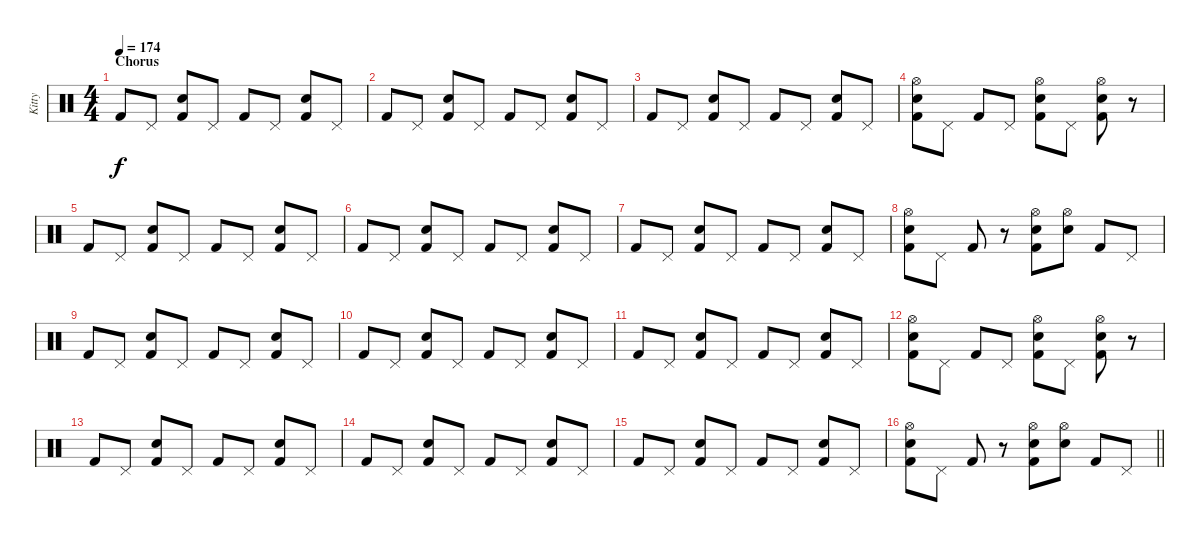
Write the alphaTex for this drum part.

\track ("Kitty" "Kitty") {instrument percussion}
\staff {score}
\articulation defaults
\ts (4 4)
\section ("" "Chorus")
\tempo 174
\clef neutral
\ks c "Kick (hit) 2".8{dy f} "Pedal Hi-Hat (hit)".8
("Snare (hit) 2" "Kick (hit) 2").8 "Pedal Hi-Hat (hit)".8 "Kick (hit) 2".8 "Pedal Hi-Hat (hit)".8 ("Snare (hit) 2" "Kick (hit) 2").8 "Pedal Hi-Hat (hit)".8 |
"Kick (hit) 2".8 "Pedal Hi-Hat (hit)".8 ("Snare (hit) 2" "Kick (hit) 2").8 "Pedal Hi-Hat (hit)".8 "Kick (hit) 2".8 "Pedal Hi-Hat (hit)".8 ("Snare (hit) 2" "Kick (hit) 2").8 "Pedal Hi-Hat (hit)".8 |
"Kick (hit) 2".8 "Pedal Hi-Hat (hit)".8 ("Snare (hit) 2" "Kick (hit) 2").8 "Pedal Hi-Hat (hit)".8 "Kick (hit) 2".8 "Pedal Hi-Hat (hit)".8 ("Snare (hit) 2" "Kick (hit) 2").8 "Pedal Hi-Hat (hit)".8 |
("Hi-Hat (open)" "Snare (hit) 2" "Kick (hit) 2").8 "Pedal Hi-Hat (hit)".8 "Kick (hit) 2".8 "Pedal Hi-Hat (hit)".8 ("Hi-Hat (open)" "Snare (hit) 2" "Kick (hit) 2").8 "Pedal Hi-Hat (hit)".8 ("Hi-Hat (open)" "Snare (hit) 2" "Kick (hit) 2").8 r.8 |
"Kick (hit) 2".8 "Pedal Hi-Hat (hit)".8 ("Snare (hit) 2" "Kick (hit) 2").8 "Pedal Hi-Hat (hit)".8 "Kick (hit) 2".8 "Pedal Hi-Hat (hit)".8 ("Snare (hit) 2" "Kick (hit) 2").8 "Pedal Hi-Hat (hit)".8 |
"Kick (hit) 2".8 "Pedal Hi-Hat (hit)".8 ("Snare (hit) 2" "Kick (hit) 2").8 "Pedal Hi-Hat (hit)".8 "Kick (hit) 2".8 "Pedal Hi-Hat (hit)".8 ("Snare (hit) 2" "Kick (hit) 2").8 "Pedal Hi-Hat (hit)".8 |
"Kick (hit) 2".8 "Pedal Hi-Hat (hit)".8 ("Snare (hit) 2" "Kick (hit) 2").8 "Pedal Hi-Hat (hit)".8 "Kick (hit) 2".8 "Pedal Hi-Hat (hit)".8 ("Snare (hit) 2" "Kick (hit) 2").8 "Pedal Hi-Hat (hit)".8 |
("Hi-Hat (open)" "Snare (hit) 2" "Kick (hit) 2").8 "Pedal Hi-Hat (hit)".8 "Kick (hit) 2".8 r.8 ("Hi-Hat (open)" "Snare (hit) 2" "Kick (hit) 2").8 ("Hi-Hat (open)" "Snare (hit) 2").8 "Kick (hit) 2".8 "Pedal Hi-Hat (hit)".8 |
"Kick (hit) 2".8 "Pedal Hi-Hat (hit)".8 ("Snare (hit) 2" "Kick (hit) 2").8 "Pedal Hi-Hat (hit)".8 "Kick (hit) 2".8 "Pedal Hi-Hat (hit)".8 ("Snare (hit) 2" "Kick (hit) 2").8 "Pedal Hi-Hat (hit)".8 |
"Kick (hit) 2".8 "Pedal Hi-Hat (hit)".8 ("Snare (hit) 2" "Kick (hit) 2").8 "Pedal Hi-Hat (hit)".8 "Kick (hit) 2".8 "Pedal Hi-Hat (hit)".8 ("Snare (hit) 2" "Kick (hit) 2").8 "Pedal Hi-Hat (hit)".8 |
"Kick (hit) 2".8 "Pedal Hi-Hat (hit)".8 ("Snare (hit) 2" "Kick (hit) 2").8 "Pedal Hi-Hat (hit)".8 "Kick (hit) 2".8 "Pedal Hi-Hat (hit)".8 ("Snare (hit) 2" "Kick (hit) 2").8 "Pedal Hi-Hat (hit)".8 |
("Hi-Hat (open)" "Snare (hit) 2" "Kick (hit) 2").8 "Pedal Hi-Hat (hit)".8 "Kick (hit) 2".8 "Pedal Hi-Hat (hit)".8 ("Hi-Hat (open)" "Snare (hit) 2" "Kick (hit) 2").8 "Pedal Hi-Hat (hit)".8 ("Hi-Hat (open)" "Snare (hit) 2" "Kick (hit) 2").8 r.8 |
"Kick (hit) 2".8 "Pedal Hi-Hat (hit)".8 ("Snare (hit) 2" "Kick (hit) 2").8 "Pedal Hi-Hat (hit)".8 "Kick (hit) 2".8 "Pedal Hi-Hat (hit)".8 ("Snare (hit) 2" "Kick (hit) 2").8 "Pedal Hi-Hat (hit)".8 |
"Kick (hit) 2".8 "Pedal Hi-Hat (hit)".8 ("Snare (hit) 2" "Kick (hit) 2").8 "Pedal Hi-Hat (hit)".8 "Kick (hit) 2".8 "Pedal Hi-Hat (hit)".8 ("Snare (hit) 2" "Kick (hit) 2").8 "Pedal Hi-Hat (hit)".8 |
"Kick (hit) 2".8 "Pedal Hi-Hat (hit)".8 ("Snare (hit) 2" "Kick (hit) 2").8 "Pedal Hi-Hat (hit)".8 "Kick (hit) 2".8 "Pedal Hi-Hat (hit)".8 ("Snare (hit) 2" "Kick (hit) 2").8 "Pedal Hi-Hat (hit)".8 |
\barLineRight lightlight
("Hi-Hat (open)" "Snare (hit) 2" "Kick (hit) 2").8 "Pedal Hi-Hat (hit)".8 "Kick (hit) 2".8 r.8 ("Hi-Hat (open)" "Snare (hit) 2" "Kick (hit) 2").8 ("Hi-Hat (open)" "Snare (hit) 2").8 "Kick (hit) 2".8 "Pedal Hi-Hat (hit)".8
